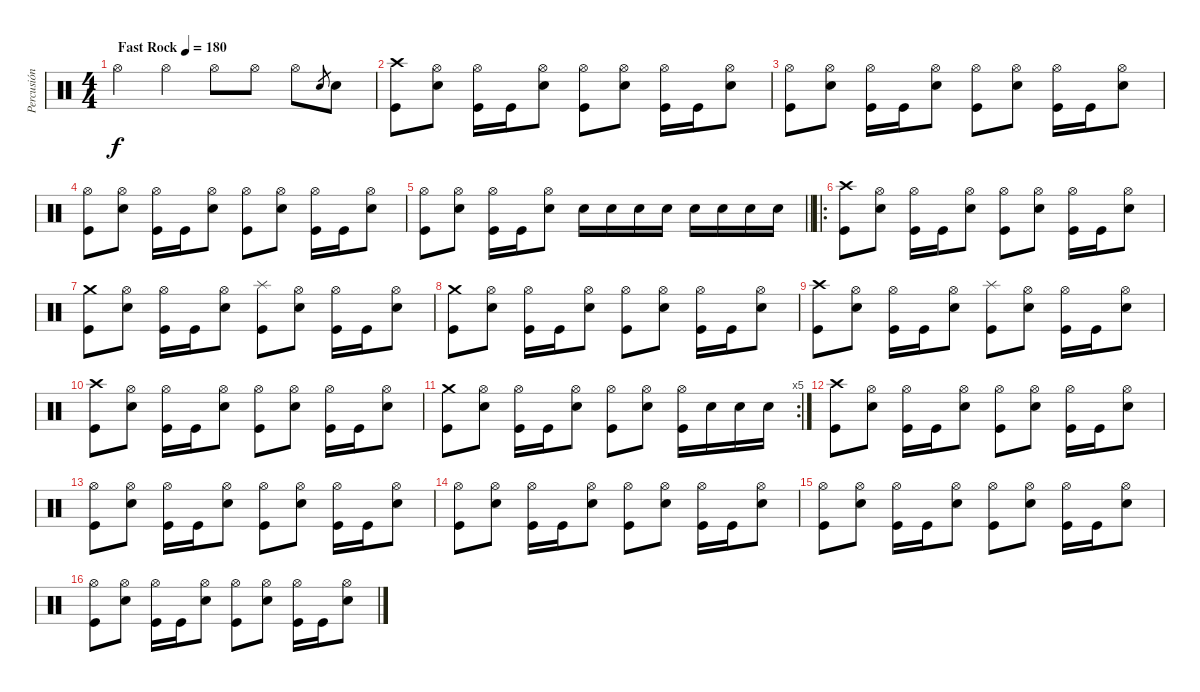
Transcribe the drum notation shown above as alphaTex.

\track ("Percusión" "Percusión") {instrument percussion}
\staff {score}
\articulation defaults
\ts (4 4)
\tempo (180 "Fast Rock")
\clef neutral
\ks c "Hi-Hat (open)".4{dy f} "Hi-Hat (open)".4 "Hi-Hat (open)".8 "Hi-Hat (open)".8 "Hi-Hat (open)".8 "Snare (hit) 2".8{gr} "Snare (hit) 2".8
|
("Crash high (hit)" "Kick (hit)").8 ("Hi-Hat (open)" "Snare (hit) 2").8 ("Hi-Hat (open)" "Kick (hit)").16 "Kick (hit)".16 ("Hi-Hat (open)" "Snare (hit) 2").8 ("Hi-Hat (open)" "Kick (hit)").8 ("Hi-Hat (open)" "Snare (hit) 2").8 ("Hi-Hat (open)" "Kick (hit)").16 "Kick (hit)".16 ("Hi-Hat (open)" "Snare (hit) 2").8 |
("Hi-Hat (open)" "Kick (hit)").8 ("Hi-Hat (open)" "Snare (hit) 2").8 ("Hi-Hat (open)" "Kick (hit)").16 "Kick (hit)".16 ("Hi-Hat (open)" "Snare (hit) 2").8 ("Hi-Hat (open)" "Kick (hit)").8 ("Hi-Hat (open)" "Snare (hit) 2").8 ("Hi-Hat (open)" "Kick (hit)").16 "Kick (hit)".16 ("Hi-Hat (open)" "Snare (hit) 2").8 |
("Hi-Hat (open)" "Kick (hit)").8 ("Hi-Hat (open)" "Snare (hit) 2").8 ("Hi-Hat (open)" "Kick (hit)").16 "Kick (hit)".16 ("Hi-Hat (open)" "Snare (hit) 2").8 ("Hi-Hat (open)" "Kick (hit)").8 ("Hi-Hat (open)" "Snare (hit) 2").8 ("Hi-Hat (open)" "Kick (hit)").16 "Kick (hit)".16 ("Hi-Hat (open)" "Snare (hit) 2").8 |
\barLineRight lightlight
("Hi-Hat (open)" "Kick (hit)").8 ("Hi-Hat (open)" "Snare (hit) 2").8 ("Hi-Hat (open)" "Kick (hit)").16 "Kick (hit)".16 ("Hi-Hat (open)" "Snare (hit) 2").8 "Snare (hit) 2".16 "Snare (hit) 2".16 "Snare (hit) 2".16 "Snare (hit) 2".16 "Snare (hit) 2".16 "Snare (hit) 2".16 "Snare (hit) 2".16 "Snare (hit) 2".16 |
\ro
("Crash high (hit)" "Kick (hit)").8 ("Hi-Hat (open)" "Snare (hit) 2").8 ("Hi-Hat (open)" "Kick (hit)").16 "Kick (hit)".16 ("Hi-Hat (open)" "Snare (hit) 2").8 ("Hi-Hat (open)" "Kick (hit)").8 ("Hi-Hat (open)" "Snare (hit) 2").8 ("Hi-Hat (open)" "Kick (hit)").16 "Kick (hit)".16 ("Hi-Hat (open)" "Snare (hit) 2").8 |
("Crash medium (hit)" "Kick (hit)").8 ("Hi-Hat (open)" "Snare (hit) 2").8 ("Hi-Hat (open)" "Kick (hit)").16 "Kick (hit)".16 ("Hi-Hat (open)" "Snare (hit) 2").8 ("Splash (hit)" "Kick (hit)").8 ("Hi-Hat (open)" "Snare (hit) 2").8 ("Hi-Hat (open)" "Kick (hit)").16 "Kick (hit)".16 ("Hi-Hat (open)" "Snare (hit) 2").8 |
("Crash medium (hit)" "Kick (hit)").8 ("Hi-Hat (open)" "Snare (hit) 2").8 ("Hi-Hat (open)" "Kick (hit)").16 "Kick (hit)".16 ("Hi-Hat (open)" "Snare (hit) 2").8 ("Hi-Hat (open)" "Kick (hit)").8 ("Hi-Hat (open)" "Snare (hit) 2").8 ("Hi-Hat (open)" "Kick (hit)").16 "Kick (hit)".16 ("Hi-Hat (open)" "Snare (hit) 2").8 |
("Crash high (hit)" "Kick (hit)").8 ("Hi-Hat (open)" "Snare (hit) 2").8 ("Hi-Hat (open)" "Kick (hit)").16 "Kick (hit)".16 ("Hi-Hat (open)" "Snare (hit) 2").8 ("Splash (hit)" "Kick (hit)").8 ("Hi-Hat (open)" "Snare (hit) 2").8 ("Hi-Hat (open)" "Kick (hit)").16 "Kick (hit)".16 ("Hi-Hat (open)" "Snare (hit) 2").8 |
("Crash high (hit)" "Kick (hit)").8 ("Hi-Hat (open)" "Snare (hit) 2").8 ("Hi-Hat (open)" "Kick (hit)").16 "Kick (hit)".16 ("Hi-Hat (open)" "Snare (hit) 2").8 ("Hi-Hat (open)" "Kick (hit)").8 ("Hi-Hat (open)" "Snare (hit) 2").8 ("Hi-Hat (open)" "Kick (hit)").16 "Kick (hit)".16 ("Hi-Hat (open)" "Snare (hit) 2").8 |
\rc 5
("Crash medium (hit)" "Kick (hit)").8 ("Hi-Hat (open)" "Snare (hit) 2").8 ("Hi-Hat (open)" "Kick (hit)").16 "Kick (hit)".16 ("Hi-Hat (open)" "Snare (hit) 2").8 ("Hi-Hat (open)" "Kick (hit)").8 ("Hi-Hat (open)" "Snare (hit) 2").8 ("Hi-Hat (open)" "Kick (hit)").16 "Snare (hit) 2".16 "Snare (hit) 2".16 "Snare (hit) 2".16 |
("Crash high (hit)" "Kick (hit)").8 ("Hi-Hat (open)" "Snare (hit) 2").8 ("Hi-Hat (open)" "Kick (hit)").16 "Kick (hit)".16 ("Hi-Hat (open)" "Snare (hit) 2").8 ("Hi-Hat (open)" "Kick (hit)").8 ("Hi-Hat (open)" "Snare (hit) 2").8 ("Hi-Hat (open)" "Kick (hit)").16 "Kick (hit)".16 ("Hi-Hat (open)" "Snare (hit) 2").8 |
("Hi-Hat (open)" "Kick (hit)").8 ("Hi-Hat (open)" "Snare (hit) 2").8 ("Hi-Hat (open)" "Kick (hit)").16 "Kick (hit)".16 ("Hi-Hat (open)" "Snare (hit) 2").8 ("Hi-Hat (open)" "Kick (hit)").8 ("Hi-Hat (open)" "Snare (hit) 2").8 ("Hi-Hat (open)" "Kick (hit)").16 "Kick (hit)".16 ("Hi-Hat (open)" "Snare (hit) 2").8 |
("Hi-Hat (open)" "Kick (hit)").8 ("Hi-Hat (open)" "Snare (hit) 2").8 ("Hi-Hat (open)" "Kick (hit)").16 "Kick (hit)".16 ("Hi-Hat (open)" "Snare (hit) 2").8 ("Hi-Hat (open)" "Kick (hit)").8 ("Hi-Hat (open)" "Snare (hit) 2").8 ("Hi-Hat (open)" "Kick (hit)").16 "Kick (hit)".16 ("Hi-Hat (open)" "Snare (hit) 2").8 |
("Hi-Hat (open)" "Kick (hit)").8 ("Hi-Hat (open)" "Snare (hit) 2").8 ("Hi-Hat (open)" "Kick (hit)").16 "Kick (hit)".16 ("Hi-Hat (open)" "Snare (hit) 2").8 ("Hi-Hat (open)" "Kick (hit)").8 ("Hi-Hat (open)" "Snare (hit) 2").8 ("Hi-Hat (open)" "Kick (hit)").16 "Kick (hit)".16 ("Hi-Hat (open)" "Snare (hit) 2").8 |
("Hi-Hat (open)" "Kick (hit)").8 ("Hi-Hat (open)" "Snare (hit) 2").8 ("Hi-Hat (open)" "Kick (hit)").16 "Kick (hit)".16 ("Hi-Hat (open)" "Snare (hit) 2").8 ("Hi-Hat (open)" "Kick (hit)").8 ("Hi-Hat (open)" "Snare (hit) 2").8 ("Hi-Hat (open)" "Kick (hit)").16 "Kick (hit)".16 ("Hi-Hat (open)" "Snare (hit) 2").8
